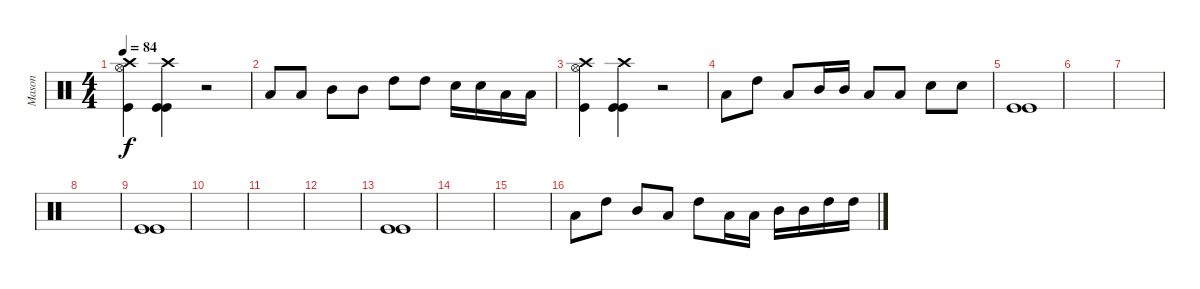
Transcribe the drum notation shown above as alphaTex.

\track ("Mason" "Mason") {instrument percussion}
\staff {score}
\articulation defaults
\ts (4 4)
\tempo 84
\clef neutral
\ks c
("Kick (hit)" "Hi-Hat (open)" "Crash high (hit)").4{dy f} ("Kick (hit)" "Kick (hit)" "Crash high (hit)").4 r.2 |
"Low Tom (hit)".8 "Low Tom (hit)".8 "Mid Tom (hit)".8 "Mid Tom (hit)".8 "High Tom (hit)".8 "High Tom (hit)".8 "Snare (hit) 2".16 "Snare (hit) 2".16 "Low Tom (hit)".16 "Low Tom (hit)".16 |
("Kick (hit)" "Hi-Hat (open)" "Crash high (hit)").4 ("Kick (hit)" "Kick (hit)" "Crash high (hit)").4 r.2 |
"Low Tom (hit)".8 "High Tom (hit)".8 "Low Tom (hit)".8 "Mid Tom (hit)".16 "Mid Tom (hit)".16 "Low Tom (hit)".8 "Low Floor Tom (hit)".8 "Snare (hit) 2".8 "Snare (hit) 2".8 |
("Kick (hit)" "Kick (hit)").1 |
|
|
|
("Kick (hit)" "Kick (hit)").1 |
|
|
|
("Kick (hit)" "Kick (hit)").1 |
|
|
"Low Tom (hit)".8 "High Tom (hit)".8 "Mid Tom (hit)".8 "Low Tom (hit)".8 "High Tom (hit)".8 "Low Tom (hit)".16 "Low Tom (hit)".16 "Mid Tom (hit)".16 "Mid Tom (hit)".16 "High Tom (hit)".16 "High Tom (hit)".16
